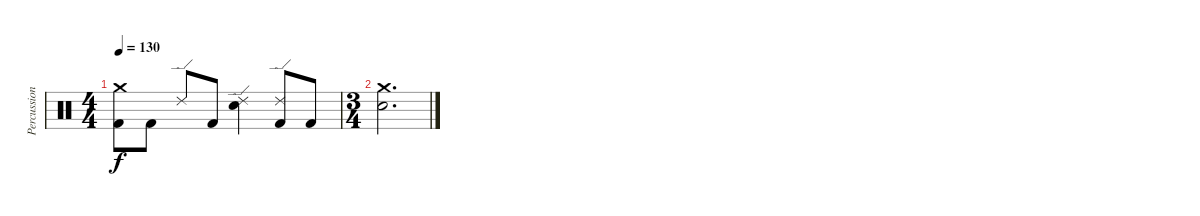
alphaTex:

\track ("Percussion" "Percussion") {instrument percussion}
\staff {score}
\articulation defaults
\ts (4 4)
\tempo 130
\clef neutral
\ks c
("Crash medium (hit)" "Kick (hit) 2").8{dy f} "Kick (hit) 2".8 "Ride (edge) 2".8 "Kick (hit) 2".8 ("Ride (edge) 2" "Electric Snare (hit)").4 ("Ride (edge) 2" "Kick (hit) 2").8 "Kick (hit) 2".8 |
\ts (3 4)
("Crash medium (hit)" "Electric Snare (hit)").2{d}
